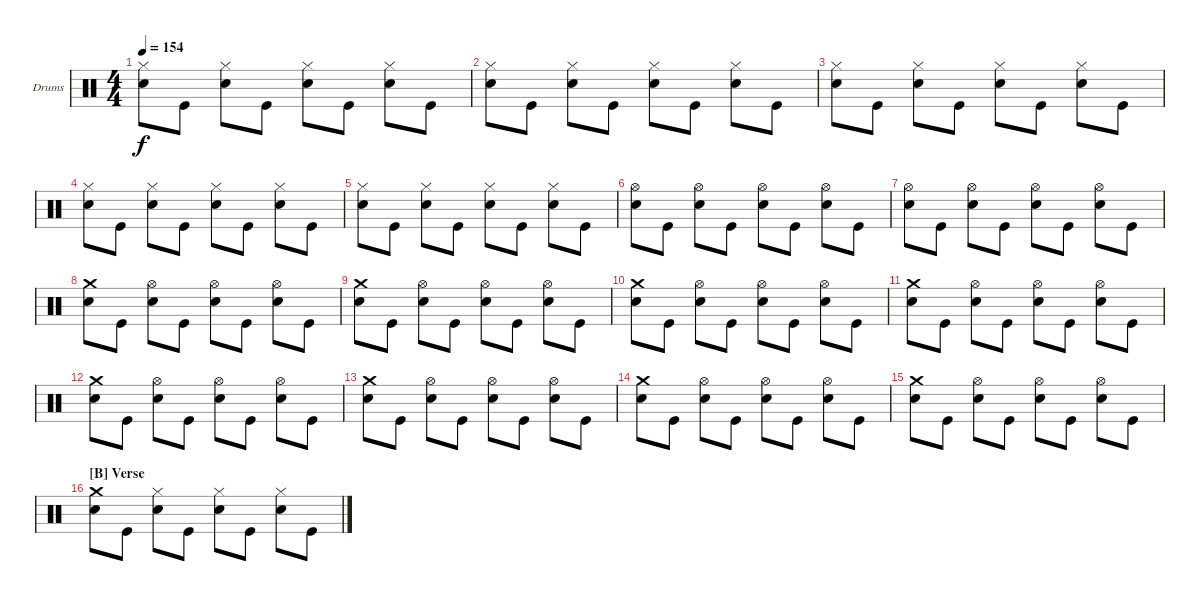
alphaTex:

\defaultSystemsLayout 4
\bracketExtendMode groupsimilarinstruments
\firstSystemTrackNameOrientation horizontal
\otherSystemsTrackNameOrientation horizontal
\track ("Drumkit" "Drums") {instrument percussion}
\staff {score}
\articulation defaults
\ts (4 4)
\tempo 154
\clef neutral
\scale
1.02648
\ks c
("Hi-Hat (closed)" "Snare (hit) 2").8{dy f} "Kick (hit)".8 ("Hi-Hat (closed)" "Snare (hit) 2").8 "Kick (hit)".8 ("Hi-Hat (closed)" "Snare (hit) 2").8 "Kick (hit)".8 ("Hi-Hat (closed)" "Snare (hit) 2").8 "Kick (hit)".8 |
\scale
0.973518 ("Hi-Hat (closed)" "Snare (hit) 2").8 "Kick (hit)".8 ("Hi-Hat (closed)" "Snare (hit) 2").8 "Kick (hit)".8 ("Hi-Hat (closed)" "Snare (hit) 2").8 "Kick (hit)".8 ("Hi-Hat (closed)" "Snare (hit) 2").8 "Kick (hit)".8 |
\scale
1.02648 ("Hi-Hat (closed)" "Snare (hit) 2").8 "Kick (hit)".8 ("Hi-Hat (closed)" "Snare (hit) 2").8 "Kick (hit)".8 ("Hi-Hat (closed)" "Snare (hit) 2").8 "Kick (hit)".8 ("Hi-Hat (closed)" "Snare (hit) 2").8 "Kick (hit)".8 |
\scale
0.973518 ("Hi-Hat (closed)" "Snare (hit) 2").8 "Kick (hit)".8 ("Hi-Hat (closed)" "Snare (hit) 2").8 "Kick (hit)".8 ("Hi-Hat (closed)" "Snare (hit) 2").8 "Kick (hit)".8 ("Hi-Hat (closed)" "Snare (hit) 2").8 "Kick (hit)".8 |
\scale
1.02648 ("Hi-Hat (closed)" "Snare (hit) 2").8 "Kick (hit)".8 ("Hi-Hat (closed)" "Snare (hit) 2").8 "Kick (hit)".8 ("Hi-Hat (closed)" "Snare (hit) 2").8 "Kick (hit)".8 ("Hi-Hat (closed)" "Snare (hit) 2").8 "Kick (hit)".8 |
\scale
0.973518 ("Hi-Hat (open)" "Snare (hit) 2").8 "Kick (hit)".8 ("Hi-Hat (open)" "Snare (hit) 2").8 "Kick (hit)".8 ("Hi-Hat (open)" "Snare (hit) 2").8 "Kick (hit)".8 ("Hi-Hat (open)" "Snare (hit) 2").8 "Kick (hit)".8 |
\scale
1.02648 ("Hi-Hat (open)" "Snare (hit) 2").8 "Kick (hit)".8 ("Hi-Hat (open)" "Snare (hit) 2").8 "Kick (hit)".8 ("Hi-Hat (open)" "Snare (hit) 2").8 "Kick (hit)".8 ("Hi-Hat (open)" "Snare (hit) 2").8 "Kick (hit)".8 |
\scale
0.973518 ("Crash medium (hit)" "Snare (hit) 2").8 "Kick (hit)".8 ("Hi-Hat (open)" "Snare (hit) 2").8 "Kick (hit)".8 ("Hi-Hat (open)" "Snare (hit) 2").8 "Kick (hit)".8 ("Hi-Hat (open)" "Snare (hit) 2").8 "Kick (hit)".8 |
\scale
1.02648 ("Crash medium (hit)" "Snare (hit) 2").8 "Kick (hit)".8 ("Hi-Hat (open)" "Snare (hit) 2").8 "Kick (hit)".8 ("Hi-Hat (open)" "Snare (hit) 2").8 "Kick (hit)".8 ("Hi-Hat (open)" "Snare (hit) 2").8 "Kick (hit)".8 |
\scale
0.973518 ("Crash medium (hit)" "Snare (hit) 2").8 "Kick (hit)".8 ("Hi-Hat (open)" "Snare (hit) 2").8 "Kick (hit)".8 ("Hi-Hat (open)" "Snare (hit) 2").8 "Kick (hit)".8 ("Hi-Hat (open)" "Snare (hit) 2").8 "Kick (hit)".8 |
\scale
1.02648 ("Crash medium (hit)" "Snare (hit) 2").8 "Kick (hit)".8 ("Hi-Hat (open)" "Snare (hit) 2").8 "Kick (hit)".8 ("Hi-Hat (open)" "Snare (hit) 2").8 "Kick (hit)".8 ("Hi-Hat (open)" "Snare (hit) 2").8 "Kick (hit)".8 |
\scale
0.973518 ("Crash medium (hit)" "Snare (hit) 2").8 "Kick (hit)".8 ("Hi-Hat (open)" "Snare (hit) 2").8 "Kick (hit)".8 ("Hi-Hat (open)" "Snare (hit) 2").8 "Kick (hit)".8 ("Hi-Hat (open)" "Snare (hit) 2").8 "Kick (hit)".8 |
\scale
1.02648 ("Crash medium (hit)" "Snare (hit) 2").8 "Kick (hit)".8 ("Hi-Hat (open)" "Snare (hit) 2").8 "Kick (hit)".8 ("Hi-Hat (open)" "Snare (hit) 2").8 "Kick (hit)".8 ("Hi-Hat (open)" "Snare (hit) 2").8 "Kick (hit)".8 |
\scale
0.973518 ("Crash medium (hit)" "Snare (hit) 2").8 "Kick (hit)".8 ("Hi-Hat (open)" "Snare (hit) 2").8 "Kick (hit)".8 ("Hi-Hat (open)" "Snare (hit) 2").8 "Kick (hit)".8 ("Hi-Hat (open)" "Snare (hit) 2").8 "Kick (hit)".8 |
\scale
1.02648 ("Crash medium (hit)" "Snare (hit) 2").8 "Kick (hit)".8 ("Hi-Hat (open)" "Snare (hit) 2").8 "Kick (hit)".8 ("Hi-Hat (open)" "Snare (hit) 2").8 "Kick (hit)".8 ("Hi-Hat (open)" "Snare (hit) 2").8 "Kick (hit)".8 |
\section ("B" "Verse")
\scale
0.973518 ("Crash medium (hit)" "Snare (hit) 2").8 "Kick (hit)".8 ("Hi-Hat (closed)" "Snare (hit) 2").8 "Kick (hit)".8 ("Hi-Hat (closed)" "Snare (hit) 2").8 "Kick (hit)".8 ("Hi-Hat (closed)" "Snare (hit) 2").8 "Kick (hit)".8
